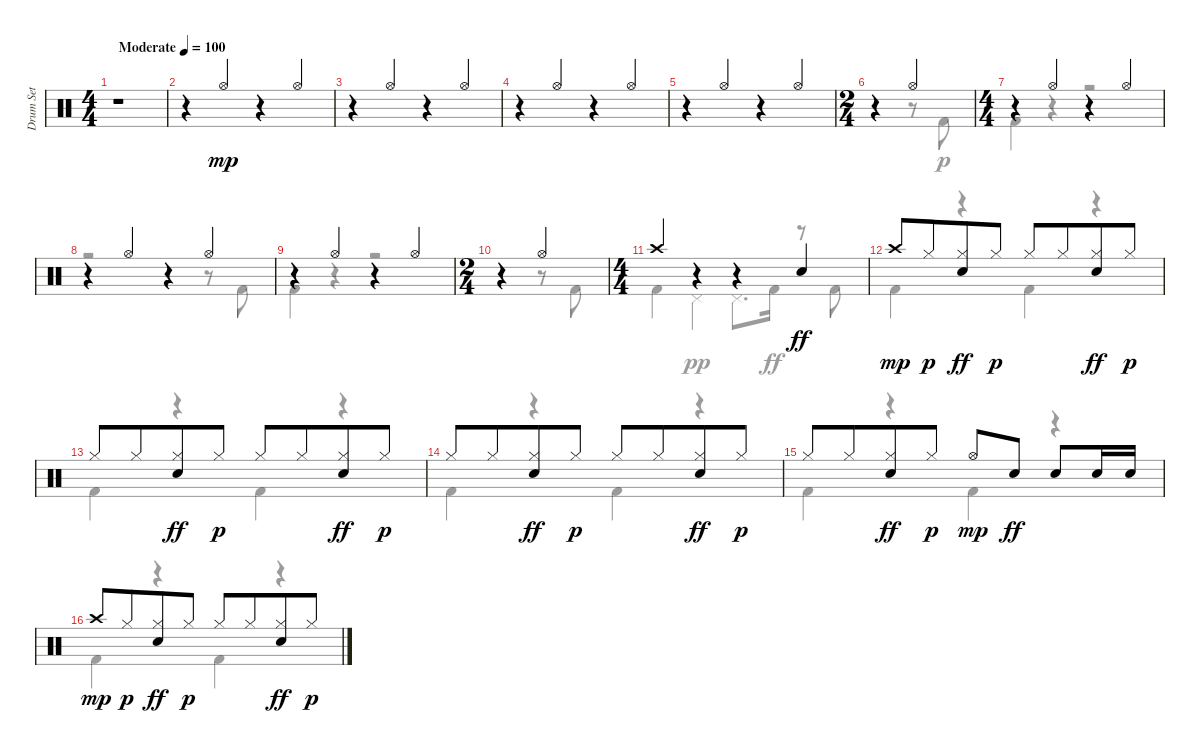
\track ("Drum Set" "Drum Set") {instrument percussion}
\staff {score}
\articulation defaults
\voice
\ts (4 4)
\tempo (100 "Moderate")
\clef neutral
\ks aminor
r.1{dy mp} |
\ks c
r.4 "Hi-Hat (open)".4{beam Up} r.4 "Hi-Hat (open)".4{beam Up} |
r.4 "Hi-Hat (open)".4{beam Up} r.4 "Hi-Hat (open)".4{beam Up} |
r.4 "Hi-Hat (open)".4{beam Up} r.4 "Hi-Hat (open)".4{beam Up} |
r.4 "Hi-Hat (open)".4{beam Up} r.4 "Hi-Hat (open)".4{beam Up} |
\ts (2 4)
r.4 "Hi-Hat (open)".4 |
\ts (4 4)
r.4 "Hi-Hat (open)".4 r.4 "Hi-Hat (open)".4 |
r.4 "Hi-Hat (open)".4 r.4 "Hi-Hat (open)".4 |
r.4 "Hi-Hat (open)".4 r.4 "Hi-Hat (open)".4 |
\ts (2 4)
r.4 "Hi-Hat (open)".4 |
\ts (4 4)
"Crash high (hit)".4 r.4 r.4 "Electric Snare (hit)".4{dy ff} |
"Crash high (hit)".8{dy mp} "Hi-Hat (closed)".8{dy p beam merge} ("Hi-Hat (closed)" "Electric Snare (hit)").8{dy ff} "Hi-Hat (closed)".8{dy p} "Hi-Hat (closed)".8 "Hi-Hat (closed)".8{beam merge} ("Hi-Hat (closed)" "Electric Snare (hit)").8{dy ff} "Hi-Hat (closed)".8{dy p} |
"Hi-Hat (closed)".8 "Hi-Hat (closed)".8{beam merge} ("Hi-Hat (closed)" "Electric Snare (hit)").8{dy ff} "Hi-Hat (closed)".8{dy p} "Hi-Hat (closed)".8 "Hi-Hat (closed)".8{beam merge} ("Hi-Hat (closed)" "Electric Snare (hit)").8{dy ff} "Hi-Hat (closed)".8{dy p} |
"Hi-Hat (closed)".8 "Hi-Hat (closed)".8{beam merge} ("Hi-Hat (closed)" "Electric Snare (hit)").8{dy ff} "Hi-Hat (closed)".8{dy p} "Hi-Hat (closed)".8 "Hi-Hat (closed)".8{beam merge} ("Hi-Hat (closed)" "Electric Snare (hit)").8{dy ff} "Hi-Hat (closed)".8{dy p} |
"Hi-Hat (closed)".8 "Hi-Hat (closed)".8{beam merge} ("Hi-Hat (closed)" "Electric Snare (hit)").8{dy ff} "Hi-Hat (closed)".8{dy p} "Hi-Hat (open)".8{dy mp} "Electric Snare (hit)".8{dy ff} "Electric Snare (hit)".8 "Electric Snare (hit)".16 "Electric Snare (hit)".16 |
"Crash high (hit)".8{dy mp} "Hi-Hat (closed)".8{dy p beam merge} ("Hi-Hat (closed)" "Electric Snare (hit)").8{dy ff} "Hi-Hat (closed)".8{dy p} "Hi-Hat (closed)".8 "Hi-Hat (closed)".8{beam merge} ("Hi-Hat (closed)" "Electric Snare (hit)").8{dy ff} "Hi-Hat (closed)".8{dy p}
\voice
\clef neutral
\ottava regular
\simile none
\ks aminor
|
\ks c
|
|
|
|
r.4 r.8 "Kick (hit) 2".8 |
"Kick (hit) 2".4 r.4 r.2 |
r.2 r.4 r.8 "Kick (hit) 2".8 |
"Kick (hit) 2".4 r.4 r.2 |
r.4 r.8 "Kick (hit) 2".8 |
"Kick (hit) 2".4 "Pedal Hi-Hat (hit)".4{dy pp} "Pedal Hi-Hat (hit)".8{d} "Kick (hit) 2".16{dy ff} r.8 "Kick (hit) 2".8 |
"Kick (hit) 2".4 r.4 "Kick (hit) 2".4 r.4 |
"Kick (hit) 2".4 r.4 "Kick (hit) 2".4 r.4 |
"Kick (hit) 2".4 r.4 "Kick (hit) 2".4 r.4 |
"Kick (hit) 2".4 r.4 "Kick (hit) 2".4 r.4 |
"Kick (hit) 2".4 r.4 "Kick (hit) 2".4 r.4
